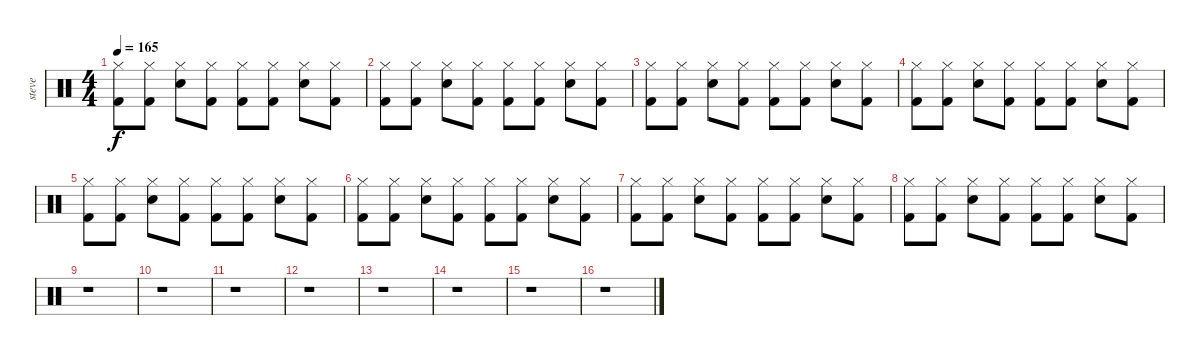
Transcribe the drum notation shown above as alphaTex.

\track ("steve" "steve") {instrument percussion}
\staff {score}
\articulation defaults
\ts (4 4)
\tempo 165
\clef neutral
\ks c
("Hi-Hat (closed)" "Kick (hit) 2").8{dy f} ("Hi-Hat (closed)" "Kick (hit) 2").8 ("Hi-Hat (closed)" "Electric Snare (hit)").8 ("Hi-Hat (closed)" "Kick (hit) 2").8 ("Hi-Hat (closed)" "Kick (hit) 2").8 ("Hi-Hat (closed)" "Kick (hit) 2").8 ("Hi-Hat (closed)" "Electric Snare (hit)").8 ("Hi-Hat (closed)" "Kick (hit) 2").8 |
("Hi-Hat (closed)" "Kick (hit) 2").8 ("Hi-Hat (closed)" "Kick (hit) 2").8 ("Hi-Hat (closed)" "Electric Snare (hit)").8 ("Hi-Hat (closed)" "Kick (hit) 2").8 ("Hi-Hat (closed)" "Kick (hit) 2").8 ("Hi-Hat (closed)" "Kick (hit) 2").8 ("Hi-Hat (closed)" "Electric Snare (hit)").8 ("Hi-Hat (closed)" "Kick (hit) 2").8 |
("Hi-Hat (closed)" "Kick (hit) 2").8 ("Hi-Hat (closed)" "Kick (hit) 2").8 ("Hi-Hat (closed)" "Electric Snare (hit)").8 ("Hi-Hat (closed)" "Kick (hit) 2").8 ("Hi-Hat (closed)" "Kick (hit) 2").8 ("Hi-Hat (closed)" "Kick (hit) 2").8 ("Hi-Hat (closed)" "Electric Snare (hit)").8 ("Hi-Hat (closed)" "Kick (hit) 2").8 |
("Hi-Hat (closed)" "Kick (hit) 2").8 ("Hi-Hat (closed)" "Kick (hit) 2").8 ("Hi-Hat (closed)" "Electric Snare (hit)").8 ("Hi-Hat (closed)" "Kick (hit) 2").8 ("Hi-Hat (closed)" "Kick (hit) 2").8 ("Hi-Hat (closed)" "Kick (hit) 2").8 ("Hi-Hat (closed)" "Electric Snare (hit)").8 ("Hi-Hat (closed)" "Kick (hit) 2").8 |
("Hi-Hat (closed)" "Kick (hit) 2").8 ("Hi-Hat (closed)" "Kick (hit) 2").8 ("Hi-Hat (closed)" "Electric Snare (hit)").8 ("Hi-Hat (closed)" "Kick (hit) 2").8 ("Hi-Hat (closed)" "Kick (hit) 2").8 ("Hi-Hat (closed)" "Kick (hit) 2").8 ("Hi-Hat (closed)" "Electric Snare (hit)").8 ("Hi-Hat (closed)" "Kick (hit) 2").8 |
("Hi-Hat (closed)" "Kick (hit) 2").8 ("Hi-Hat (closed)" "Kick (hit) 2").8 ("Hi-Hat (closed)" "Electric Snare (hit)").8 ("Hi-Hat (closed)" "Kick (hit) 2").8 ("Hi-Hat (closed)" "Kick (hit) 2").8 ("Hi-Hat (closed)" "Kick (hit) 2").8 ("Hi-Hat (closed)" "Electric Snare (hit)").8 ("Hi-Hat (closed)" "Kick (hit) 2").8 |
("Hi-Hat (closed)" "Kick (hit) 2").8 ("Hi-Hat (closed)" "Kick (hit) 2").8 ("Hi-Hat (closed)" "Electric Snare (hit)").8 ("Hi-Hat (closed)" "Kick (hit) 2").8 ("Hi-Hat (closed)" "Kick (hit) 2").8 ("Hi-Hat (closed)" "Kick (hit) 2").8 ("Hi-Hat (closed)" "Electric Snare (hit)").8 ("Hi-Hat (closed)" "Kick (hit) 2").8 |
("Hi-Hat (closed)" "Kick (hit) 2").8 ("Hi-Hat (closed)" "Kick (hit) 2").8 ("Hi-Hat (closed)" "Electric Snare (hit)").8 ("Hi-Hat (closed)" "Kick (hit) 2").8 ("Hi-Hat (closed)" "Kick (hit) 2").8 ("Hi-Hat (closed)" "Kick (hit) 2").8 ("Hi-Hat (closed)" "Electric Snare (hit)").8 ("Hi-Hat (closed)" "Kick (hit) 2").8 |
r.1 |
r.1 |
r.1 |
r.1 |
r.1 |
r.1 |
r.1 |
r.1
